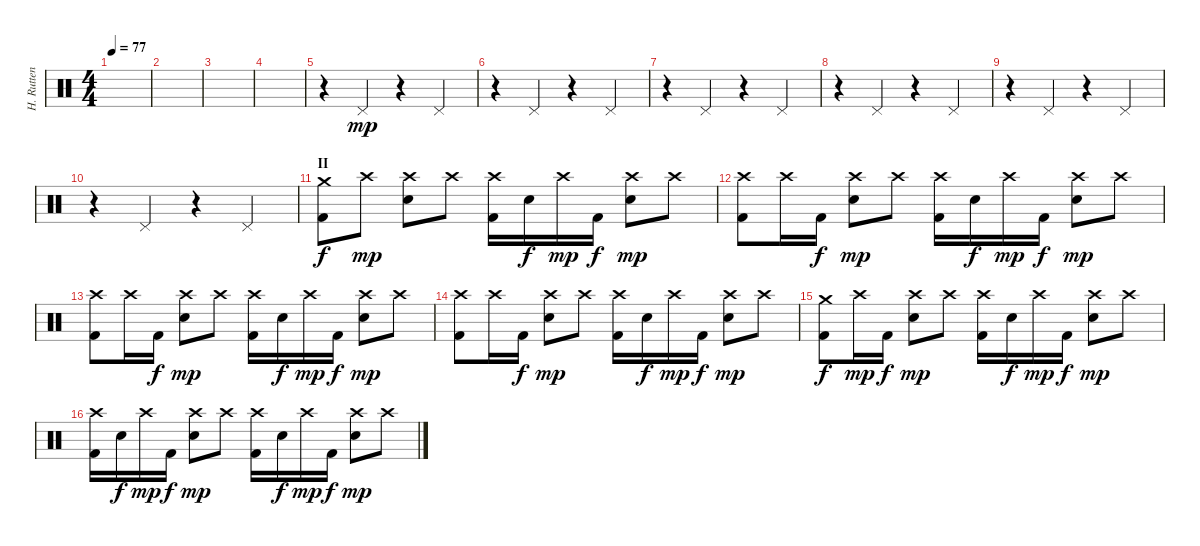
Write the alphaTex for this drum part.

\track ("H. Rutten" "H. Rutten") {instrument percussion}
\staff {score}
\articulation defaults
\ts (4 4)
\tempo 77
\clef neutral
\ks c
|
|
|
|
r.4 "Pedal Hi-Hat (hit)".4{dy mp} r.4 "Pedal Hi-Hat (hit)".4 |
r.4 "Pedal Hi-Hat (hit)".4 r.4 "Pedal Hi-Hat (hit)".4 |
r.4 "Pedal Hi-Hat (hit)".4 r.4 "Pedal Hi-Hat (hit)".4 |
r.4 "Pedal Hi-Hat (hit)".4 r.4 "Pedal Hi-Hat (hit)".4 |
r.4 "Pedal Hi-Hat (hit)".4 r.4 "Pedal Hi-Hat (hit)".4 |
r.4 "Pedal Hi-Hat (hit)".4 r.4 "Pedal Hi-Hat (hit)".4 |
\section ("" "II")
("Kick (hit) 2" "Crash medium (hit)").8{dy f} "Crash high (hit)".8{dy mp} ("Electric Snare (hit)" "Crash high (hit)").8 "Crash high (hit)".8 ("Kick (hit) 2" "Crash high (hit)").16 "Electric Snare (hit)".16{dy f} "Crash high (hit)".16{dy mp} "Kick (hit) 2".16{dy f} ("Electric Snare (hit)" "Crash high (hit)").8{dy mp} "Crash high (hit)".8 |
("Kick (hit) 2" "Crash high (hit)").8 "Crash high (hit)".16 "Kick (hit) 2".16{dy f} ("Electric Snare (hit)" "Crash high (hit)").8{dy mp} "Crash high (hit)".8 ("Kick (hit) 2" "Crash high (hit)").16 "Electric Snare (hit)".16{dy f} "Crash high (hit)".16{dy mp} "Kick (hit) 2".16{dy f} ("Electric Snare (hit)" "Crash high (hit)").8{dy mp} "Crash high (hit)".8 |
("Kick (hit) 2" "Crash high (hit)").8 "Crash high (hit)".16 "Kick (hit) 2".16{dy f} ("Electric Snare (hit)" "Crash high (hit)").8{dy mp} "Crash high (hit)".8 ("Kick (hit) 2" "Crash high (hit)").16 "Electric Snare (hit)".16{dy f} "Crash high (hit)".16{dy mp} "Kick (hit) 2".16{dy f} ("Electric Snare (hit)" "Crash high (hit)").8{dy mp} "Crash high (hit)".8 |
("Kick (hit) 2" "Crash high (hit)").8 "Crash high (hit)".16 "Kick (hit) 2".16{dy f} ("Electric Snare (hit)" "Crash high (hit)").8{dy mp} "Crash high (hit)".8 ("Kick (hit) 2" "Crash high (hit)").16 "Electric Snare (hit)".16{dy f} "Crash high (hit)".16{dy mp} "Kick (hit) 2".16{dy f} ("Electric Snare (hit)" "Crash high (hit)").8{dy mp} "Crash high (hit)".8 |
("Kick (hit) 2" "Crash medium (hit)").8{dy f} "Crash high (hit)".16{dy mp} "Kick (hit) 2".16{dy f} ("Electric Snare (hit)" "Crash high (hit)").8{dy mp} "Crash high (hit)".8 ("Kick (hit) 2" "Crash high (hit)").16 "Electric Snare (hit)".16{dy f} "Crash high (hit)".16{dy mp} "Kick (hit) 2".16{dy f} ("Electric Snare (hit)" "Crash high (hit)").8{dy mp} "Crash high (hit)".8 |
("Kick (hit) 2" "Crash high (hit)").16 "Electric Snare (hit)".16{dy f} "Crash high (hit)".16{dy mp} "Kick (hit) 2".16{dy f} ("Electric Snare (hit)" "Crash high (hit)").8{dy mp} "Crash high (hit)".8 ("Kick (hit) 2" "Crash high (hit)").16 "Electric Snare (hit)".16{dy f} "Crash high (hit)".16{dy mp} "Kick (hit) 2".16{dy f} ("Electric Snare (hit)" "Crash high (hit)").8{dy mp} "Crash high (hit)".8
